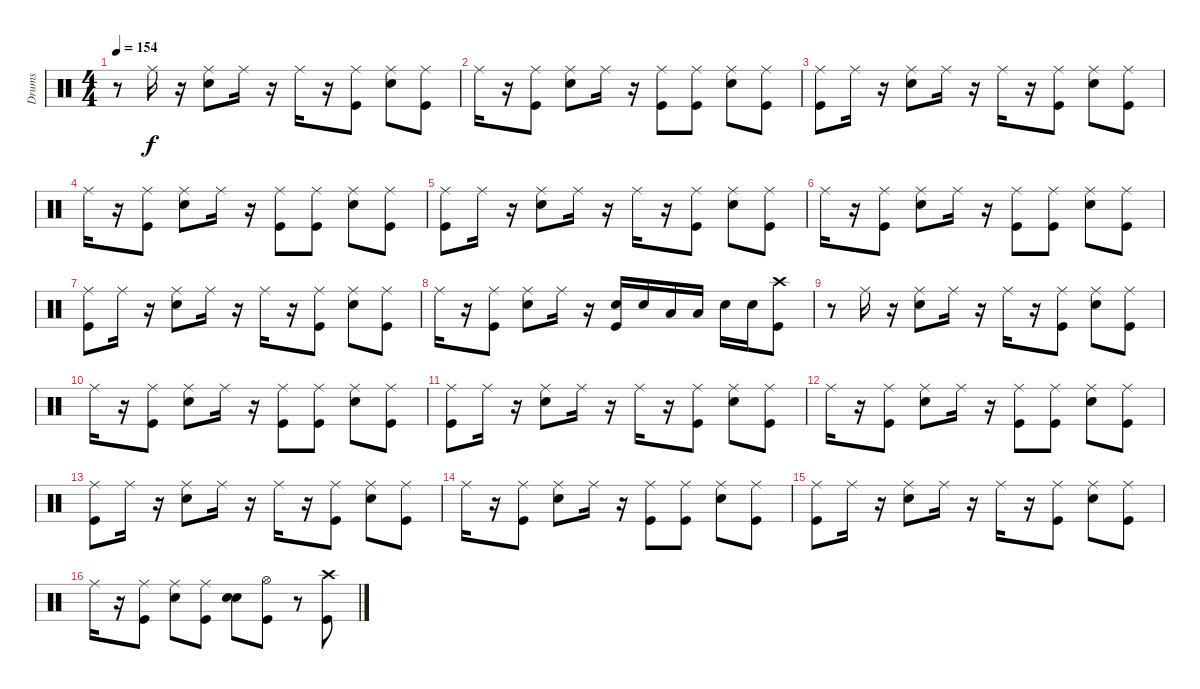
\track ("Drums" "Drums") {instrument percussion}
\staff {score}
\articulation defaults
\ts (4 4)
\tempo 154
\clef neutral
\ks c
r.8{dy f} "Ride (middle)".16 r.16 ("Snare (hit) 2" "Ride (middle)").8 "Ride (middle)".16 r.16 "Ride (middle)".16 r.16 ("Ride (middle)" "Kick (hit)").8 ("Snare (hit) 2" "Ride (middle)").8 ("Ride (middle)" "Kick (hit)").8 |
"Ride (middle)".16 r.16 ("Kick (hit)" "Ride (middle)").8 ("Ride (middle)" "Snare (hit) 2").8 "Ride (middle)".16 r.16 ("Ride (middle)" "Kick (hit)").8 ("Kick (hit)" "Ride (middle)").8 ("Ride (middle)" "Snare (hit) 2").8 ("Kick (hit)" "Ride (middle)").8 |
("Ride (middle)" "Kick (hit)").8 "Ride (middle)".16 r.16 ("Ride (middle)" "Snare (hit) 2").8 "Ride (middle)".16 r.16 "Ride (middle)".16 r.16 ("Kick (hit)" "Ride (middle)").8 ("Snare (hit) 2" "Ride (middle)").8 ("Ride (middle)" "Kick (hit)").8 |
"Ride (middle)".16 r.16 ("Ride (middle)" "Kick (hit)").8 ("Snare (hit) 2" "Ride (middle)").8 "Ride (middle)".16 r.16 ("Kick (hit)" "Ride (middle)").8 ("Ride (middle)" "Kick (hit)").8 ("Snare (hit) 2" "Ride (middle)").8 ("Ride (middle)" "Kick (hit)").8 |
("Kick (hit)" "Ride (middle)").8 "Ride (middle)".16 r.16 ("Snare (hit) 2" "Ride (middle)").8 "Ride (middle)".16 r.16 "Ride (middle)".16 r.16 ("Ride (middle)" "Kick (hit)").8 ("Snare (hit) 2" "Ride (middle)").8 ("Ride (middle)" "Kick (hit)").8 |
"Ride (middle)".16 r.16 ("Ride (middle)" "Kick (hit)").8 ("Snare (hit) 2" "Ride (middle)").8 "Ride (middle)".16 r.16 ("Kick (hit)" "Ride (middle)").8 ("Ride (middle)" "Kick (hit)").8 ("Snare (hit) 2" "Ride (middle)").8 ("Ride (middle)" "Kick (hit)").8 |
("Kick (hit)" "Ride (middle)").8 "Ride (middle)".16 r.16 ("Snare (hit) 2" "Ride (middle)").8 "Ride (middle)".16 r.16 "Ride (middle)".16 r.16 ("Ride (middle)" "Kick (hit)").8 ("Snare (hit) 2" "Ride (middle)").8 ("Ride (middle)" "Kick (hit)").8 |
"Ride (middle)".16 r.16 ("Ride (middle)" "Kick (hit)").8 ("Ride (middle)" "Snare (hit) 2").8 "Ride (middle)".16 r.16 ("Kick (hit)" "Snare (hit) 2").16 "Snare (hit) 2".16 "Low Tom (hit)".16 "Low Tom (hit)".16 "Snare (hit) 2".16 "Snare (hit) 2".16 ("Kick (hit)" "Crash high (hit)").8 |
r.8 "Ride (middle)".16 r.16 ("Snare (hit) 2" "Ride (middle)").8 "Ride (middle)".16 r.16 "Ride (middle)".16 r.16 ("Ride (middle)" "Kick (hit)").8 ("Snare (hit) 2" "Ride (middle)").8 ("Ride (middle)" "Kick (hit)").8 |
"Ride (middle)".16 r.16 ("Kick (hit)" "Ride (middle)").8 ("Ride (middle)" "Snare (hit) 2").8 "Ride (middle)".16 r.16 ("Ride (middle)" "Kick (hit)").8 ("Kick (hit)" "Ride (middle)").8 ("Ride (middle)" "Snare (hit) 2").8 ("Kick (hit)" "Ride (middle)").8 |
("Ride (middle)" "Kick (hit)").8 "Ride (middle)".16 r.16 ("Ride (middle)" "Snare (hit) 2").8 "Ride (middle)".16 r.16 "Ride (middle)".16 r.16 ("Kick (hit)" "Ride (middle)").8 ("Snare (hit) 2" "Ride (middle)").8 ("Ride (middle)" "Kick (hit)").8 |
"Ride (middle)".16 r.16 ("Ride (middle)" "Kick (hit)").8 ("Snare (hit) 2" "Ride (middle)").8 "Ride (middle)".16 r.16 ("Kick (hit)" "Ride (middle)").8 ("Ride (middle)" "Kick (hit)").8 ("Snare (hit) 2" "Ride (middle)").8 ("Ride (middle)" "Kick (hit)").8 |
("Kick (hit)" "Ride (middle)").8 "Ride (middle)".16 r.16 ("Snare (hit) 2" "Ride (middle)").8 "Ride (middle)".16 r.16 "Ride (middle)".16 r.16 ("Ride (middle)" "Kick (hit)").8 ("Snare (hit) 2" "Ride (middle)").8 ("Ride (middle)" "Kick (hit)").8 |
"Ride (middle)".16 r.16 ("Ride (middle)" "Kick (hit)").8 ("Snare (hit) 2" "Ride (middle)").8 "Ride (middle)".16 r.16 ("Kick (hit)" "Ride (middle)").8 ("Ride (middle)" "Kick (hit)").8 ("Snare (hit) 2" "Ride (middle)").8 ("Ride (middle)" "Kick (hit)").8 |
("Kick (hit)" "Ride (middle)").8 "Ride (middle)".16 r.16 ("Snare (hit) 2" "Ride (middle)").8 "Ride (middle)".16 r.16 "Ride (middle)".16 r.16 ("Ride (middle)" "Kick (hit)").8 ("Snare (hit) 2" "Ride (middle)").8 ("Ride (middle)" "Kick (hit)").8 |
"Ride (middle)".16 r.16 ("Ride (middle)" "Kick (hit)").8 ("Ride (middle)" "Snare (hit) 2").8 ("Ride (middle)" "Kick (hit)").8 ("Snare (hit) 2" "Snare (hit) 2").8 ("Kick (hit)" "Hi-Hat (open)").8 r.8 ("Crash high (hit)" "Kick (hit)").8
